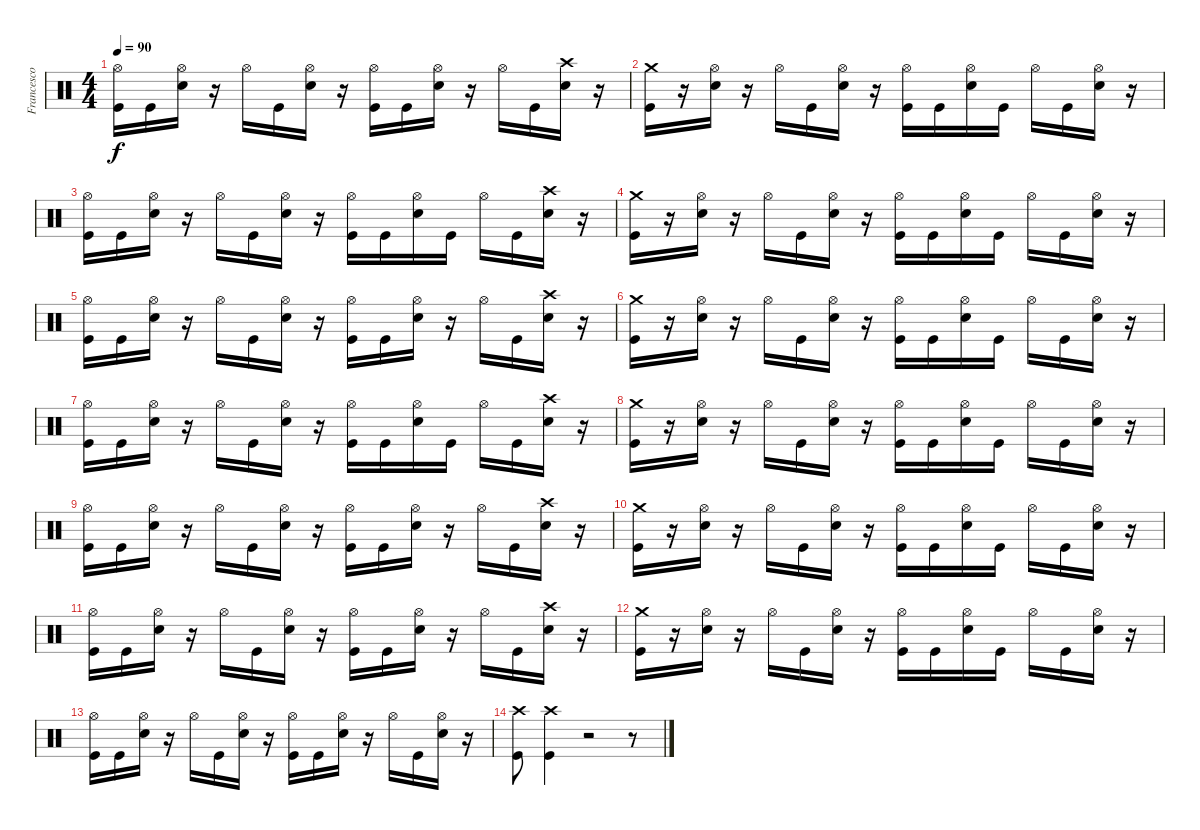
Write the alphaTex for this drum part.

\track ("Francesco Jovino" "Francesco ") {instrument percussion}
\staff {score}
\articulation defaults
\ts (4 4)
\tempo 90
\clef neutral
\ks c
("Hi-Hat (open)" "Kick (hit)").16{dy f} "Kick (hit)".16 ("Snare (hit) 2" "Hi-Hat (open)").16 r.16 "Hi-Hat (open)".16 "Kick (hit)".16 ("Snare (hit) 2" "Hi-Hat (open)").16 r.16 ("Kick (hit)" "Hi-Hat (open)").16 "Kick (hit)".16 ("Snare (hit) 2" "Hi-Hat (open)").16 r.16 "Hi-Hat (open)".16 "Kick (hit)".16 ("Snare (hit) 2" "Crash high (hit)").16 r.16 |
("Kick (hit)" "Crash medium (hit)").16 r.16 ("Snare (hit) 2" "Hi-Hat (open)").16 r.16 "Hi-Hat (open)".16 "Kick (hit)".16 ("Snare (hit) 2" "Hi-Hat (open)").16 r.16 ("Kick (hit)" "Hi-Hat (open)").16 "Kick (hit)".16 ("Snare (hit) 2" "Hi-Hat (open)").16 "Kick (hit)".16 "Hi-Hat (open)".16 "Kick (hit)".16 ("Snare (hit) 2" "Hi-Hat (open)").16 r.16 |
("Hi-Hat (open)" "Kick (hit)").16 "Kick (hit)".16 ("Snare (hit) 2" "Hi-Hat (open)").16 r.16 "Hi-Hat (open)".16 "Kick (hit)".16 ("Snare (hit) 2" "Hi-Hat (open)").16 r.16 ("Kick (hit)" "Hi-Hat (open)").16 "Kick (hit)".16 ("Snare (hit) 2" "Hi-Hat (open)").16 "Kick (hit)".16 "Hi-Hat (open)".16 "Kick (hit)".16 ("Snare (hit) 2" "Crash high (hit)").16 r.16 |
("Kick (hit)" "Crash medium (hit)").16 r.16 ("Snare (hit) 2" "Hi-Hat (open)").16 r.16 "Hi-Hat (open)".16 "Kick (hit)".16 ("Snare (hit) 2" "Hi-Hat (open)").16 r.16 ("Kick (hit)" "Hi-Hat (open)").16 "Kick (hit)".16 ("Snare (hit) 2" "Hi-Hat (open)").16 "Kick (hit)".16 "Hi-Hat (open)".16 "Kick (hit)".16 ("Snare (hit) 2" "Hi-Hat (open)").16 r.16 |
("Hi-Hat (open)" "Kick (hit)").16 "Kick (hit)".16 ("Snare (hit) 2" "Hi-Hat (open)").16 r.16 "Hi-Hat (open)".16 "Kick (hit)".16 ("Snare (hit) 2" "Hi-Hat (open)").16 r.16 ("Kick (hit)" "Hi-Hat (open)").16 "Kick (hit)".16 ("Snare (hit) 2" "Hi-Hat (open)").16 r.16 "Hi-Hat (open)".16 "Kick (hit)".16 ("Snare (hit) 2" "Crash high (hit)").16 r.16 |
("Kick (hit)" "Crash medium (hit)").16 r.16 ("Snare (hit) 2" "Hi-Hat (open)").16 r.16 "Hi-Hat (open)".16 "Kick (hit)".16 ("Snare (hit) 2" "Hi-Hat (open)").16 r.16 ("Kick (hit)" "Hi-Hat (open)").16 "Kick (hit)".16 ("Snare (hit) 2" "Hi-Hat (open)").16 "Kick (hit)".16 "Hi-Hat (open)".16 "Kick (hit)".16 ("Snare (hit) 2" "Hi-Hat (open)").16 r.16 |
("Hi-Hat (open)" "Kick (hit)").16 "Kick (hit)".16 ("Snare (hit) 2" "Hi-Hat (open)").16 r.16 "Hi-Hat (open)".16 "Kick (hit)".16 ("Snare (hit) 2" "Hi-Hat (open)").16 r.16 ("Kick (hit)" "Hi-Hat (open)").16 "Kick (hit)".16 ("Snare (hit) 2" "Hi-Hat (open)").16 "Kick (hit)".16 "Hi-Hat (open)".16 "Kick (hit)".16 ("Snare (hit) 2" "Crash high (hit)").16 r.16 |
("Kick (hit)" "Crash medium (hit)").16 r.16 ("Snare (hit) 2" "Hi-Hat (open)").16 r.16 "Hi-Hat (open)".16 "Kick (hit)".16 ("Snare (hit) 2" "Hi-Hat (open)").16 r.16 ("Kick (hit)" "Hi-Hat (open)").16 "Kick (hit)".16 ("Snare (hit) 2" "Hi-Hat (open)").16 "Kick (hit)".16 "Hi-Hat (open)".16 "Kick (hit)".16 ("Snare (hit) 2" "Hi-Hat (open)").16 r.16 |
("Hi-Hat (open)" "Kick (hit)").16 "Kick (hit)".16 ("Snare (hit) 2" "Hi-Hat (open)").16 r.16 "Hi-Hat (open)".16 "Kick (hit)".16 ("Snare (hit) 2" "Hi-Hat (open)").16 r.16 ("Kick (hit)" "Hi-Hat (open)").16 "Kick (hit)".16 ("Snare (hit) 2" "Hi-Hat (open)").16 r.16 "Hi-Hat (open)".16 "Kick (hit)".16 ("Snare (hit) 2" "Crash high (hit)").16 r.16 |
("Kick (hit)" "Crash medium (hit)").16 r.16 ("Snare (hit) 2" "Hi-Hat (open)").16 r.16 "Hi-Hat (open)".16 "Kick (hit)".16 ("Snare (hit) 2" "Hi-Hat (open)").16 r.16 ("Kick (hit)" "Hi-Hat (open)").16 "Kick (hit)".16 ("Snare (hit) 2" "Hi-Hat (open)").16 "Kick (hit)".16 "Hi-Hat (open)".16 "Kick (hit)".16 ("Snare (hit) 2" "Hi-Hat (open)").16 r.16 |
("Hi-Hat (open)" "Kick (hit)").16 "Kick (hit)".16 ("Snare (hit) 2" "Hi-Hat (open)").16 r.16 "Hi-Hat (open)".16 "Kick (hit)".16 ("Snare (hit) 2" "Hi-Hat (open)").16 r.16 ("Kick (hit)" "Hi-Hat (open)").16 "Kick (hit)".16 ("Snare (hit) 2" "Hi-Hat (open)").16 r.16 "Hi-Hat (open)".16 "Kick (hit)".16 ("Snare (hit) 2" "Crash high (hit)").16 r.16 |
("Kick (hit)" "Crash medium (hit)").16 r.16 ("Snare (hit) 2" "Hi-Hat (open)").16 r.16 "Hi-Hat (open)".16 "Kick (hit)".16 ("Snare (hit) 2" "Hi-Hat (open)").16 r.16 ("Kick (hit)" "Hi-Hat (open)").16 "Kick (hit)".16 ("Snare (hit) 2" "Hi-Hat (open)").16 "Kick (hit)".16 "Hi-Hat (open)".16 "Kick (hit)".16 ("Snare (hit) 2" "Hi-Hat (open)").16 r.16 |
("Hi-Hat (open)" "Kick (hit)").16 "Kick (hit)".16 ("Snare (hit) 2" "Hi-Hat (open)").16 r.16 "Hi-Hat (open)".16 "Kick (hit)".16 ("Snare (hit) 2" "Hi-Hat (open)").16 r.16 ("Kick (hit)" "Hi-Hat (open)").16 "Kick (hit)".16 ("Snare (hit) 2" "Hi-Hat (open)").16 r.16 "Hi-Hat (open)".16 "Kick (hit)".16 ("Snare (hit) 2" "Hi-Hat (open)").16 r.16 |
("Kick (hit)" "Crash high (hit)").8 ("Kick (hit)" "Crash high (hit)").4 r.2 r.8
